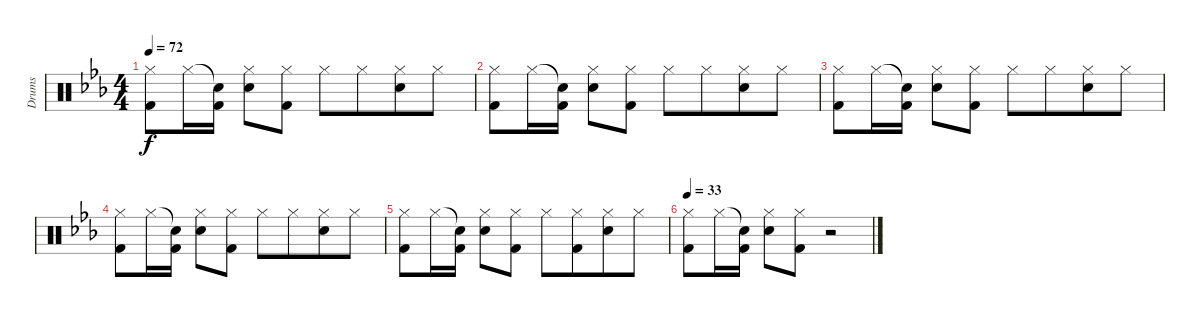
\track ("Drums" "Drums") {instrument percussion}
\staff {score}
\articulation defaults
\ts (4 4)
\tempo 72
\clef neutral
\ks eb
("Hi-Hat (closed)" "Kick (hit) 2").8{dy f} "Hi-Hat (closed)".16 ("Snare (hit)"{t} "Kick (hit) 2").16 ("Hi-Hat (closed)" "Snare (hit) 2").8 ("Hi-Hat (closed)" "Kick (hit) 2").8 "Hi-Hat (closed)".8 "Hi-Hat (closed)".8{beam merge} ("Hi-Hat (closed)" "Snare (hit) 2").8 "Hi-Hat (closed)".8 |
("Hi-Hat (closed)" "Kick (hit) 2").8 "Hi-Hat (closed)".16 ("Snare (hit)"{t} "Kick (hit) 2").16 ("Hi-Hat (closed)" "Snare (hit) 2").8 ("Hi-Hat (closed)" "Kick (hit) 2").8 "Hi-Hat (closed)".8 "Hi-Hat (closed)".8{beam merge} ("Hi-Hat (closed)" "Snare (hit) 2").8 "Hi-Hat (closed)".8 |
("Hi-Hat (closed)" "Kick (hit) 2").8 "Hi-Hat (closed)".16 ("Snare (hit)"{t} "Kick (hit) 2").16 ("Hi-Hat (closed)" "Snare (hit) 2").8 ("Hi-Hat (closed)" "Kick (hit) 2").8 "Hi-Hat (closed)".8 "Hi-Hat (closed)".8{beam merge} ("Hi-Hat (closed)" "Snare (hit) 2").8 "Hi-Hat (closed)".8 |
("Hi-Hat (closed)" "Kick (hit) 2").8 "Hi-Hat (closed)".16 ("Snare (hit)"{t} "Kick (hit) 2").16 ("Hi-Hat (closed)" "Snare (hit) 2").8 ("Hi-Hat (closed)" "Kick (hit) 2").8 "Hi-Hat (closed)".8 "Hi-Hat (closed)".8{beam merge} ("Hi-Hat (closed)" "Snare (hit) 2").8 "Hi-Hat (closed)".8 |
("Hi-Hat (closed)" "Kick (hit) 2").8 "Hi-Hat (closed)".16 ("Snare (hit)"{t} "Kick (hit) 2").16 ("Hi-Hat (closed)" "Snare (hit) 2").8 ("Hi-Hat (closed)" "Kick (hit) 2").8 "Hi-Hat (closed)".8 ("Hi-Hat (closed)" "Kick (hit) 2").8{beam merge} ("Hi-Hat (closed)" "Snare (hit) 2").8 "Hi-Hat (closed)".8 |
\tempo 33
("Hi-Hat (closed)" "Kick (hit) 2").8 "Hi-Hat (closed)".16 ("Snare (hit)"{t} "Kick (hit) 2").16 ("Hi-Hat (closed)" "Snare (hit) 2").8 ("Hi-Hat (closed)" "Kick (hit) 2").8 r.2
